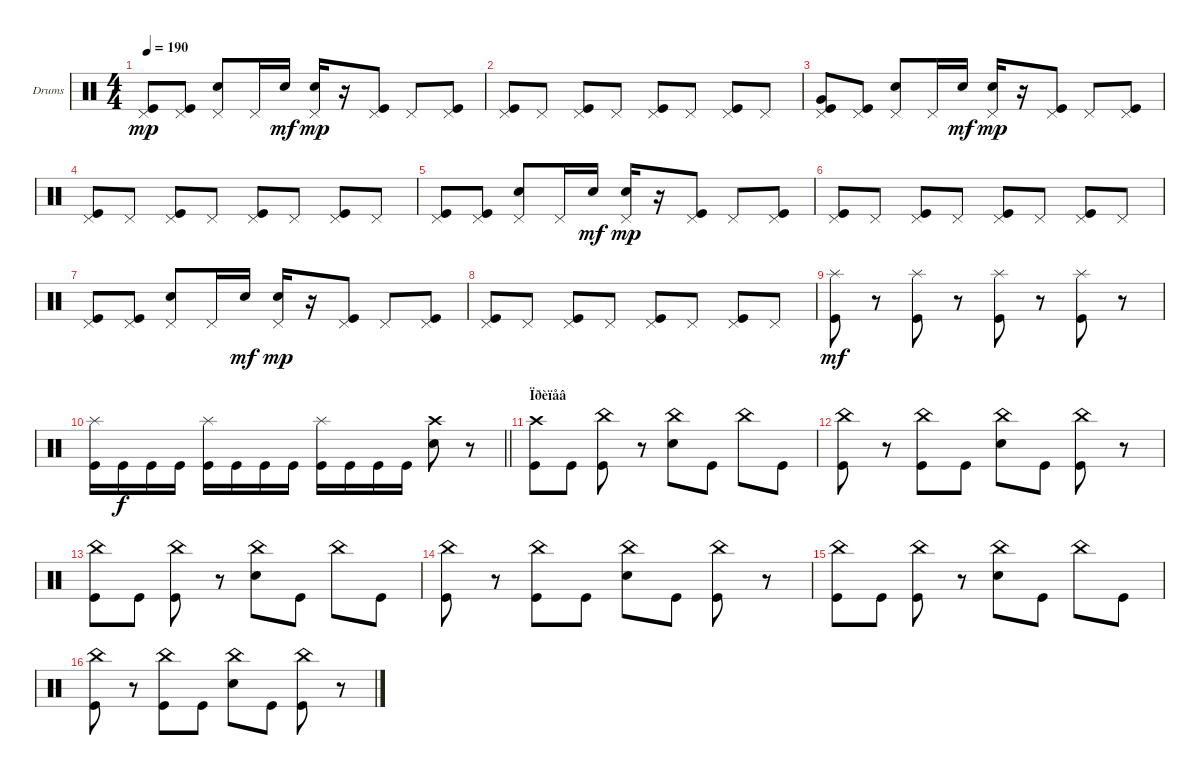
\bracketExtendMode groupsimilarinstruments
\firstSystemTrackNameOrientation horizontal
\otherSystemsTrackNameOrientation horizontal
\track ("Drumkit" "Drums") {instrument percussion}
\staff {score}
\articulation defaults
\ts (4 4)
\tempo 190
\clef neutral
\ks c
("Pedal Hi-Hat (hit)" "Kick (hit)").8{dy mp} ("Pedal Hi-Hat (hit)" "Kick (hit)").8 ("Pedal Hi-Hat (hit)" "Snare (hit) 2").8 "Pedal Hi-Hat (hit)".16 "Snare (hit) 2".16{dy mf} ("Pedal Hi-Hat (hit)" "Snare (hit) 2").16{dy mp} r.16 ("Pedal Hi-Hat (hit)" "Kick (hit)").8 "Pedal Hi-Hat (hit)".8 ("Pedal Hi-Hat (hit)" "Kick (hit)").8 |
("Pedal Hi-Hat (hit)" "Kick (hit)").8 "Pedal Hi-Hat (hit)".8 ("Pedal Hi-Hat (hit)" "Kick (hit)").8 "Pedal Hi-Hat (hit)".8 ("Pedal Hi-Hat (hit)" "Kick (hit)").8 "Pedal Hi-Hat (hit)".8 ("Pedal Hi-Hat (hit)" "Kick (hit)").8 "Pedal Hi-Hat (hit)".8 |
("Very Low Tom (hit)" "Pedal Hi-Hat (hit)" "Kick (hit)").8 ("Pedal Hi-Hat (hit)" "Kick (hit)").8 ("Pedal Hi-Hat (hit)" "Snare (hit) 2").8 "Pedal Hi-Hat (hit)".16 "Snare (hit) 2".16{dy mf} ("Pedal Hi-Hat (hit)" "Snare (hit) 2").16{dy mp} r.16 ("Pedal Hi-Hat (hit)" "Kick (hit)").8 "Pedal Hi-Hat (hit)".8 ("Pedal Hi-Hat (hit)" "Kick (hit)").8 |
("Pedal Hi-Hat (hit)" "Kick (hit)").8 "Pedal Hi-Hat (hit)".8 ("Pedal Hi-Hat (hit)" "Kick (hit)").8 "Pedal Hi-Hat (hit)".8 ("Pedal Hi-Hat (hit)" "Kick (hit)").8 "Pedal Hi-Hat (hit)".8 ("Pedal Hi-Hat (hit)" "Kick (hit)").8 "Pedal Hi-Hat (hit)".8 |
("Pedal Hi-Hat (hit)" "Kick (hit)").8 ("Pedal Hi-Hat (hit)" "Kick (hit)").8 ("Pedal Hi-Hat (hit)" "Snare (hit) 2").8 "Pedal Hi-Hat (hit)".16 "Snare (hit) 2".16{dy mf} ("Pedal Hi-Hat (hit)" "Snare (hit) 2").16{dy mp} r.16 ("Pedal Hi-Hat (hit)" "Kick (hit)").8 "Pedal Hi-Hat (hit)".8 ("Pedal Hi-Hat (hit)" "Kick (hit)").8 |
("Pedal Hi-Hat (hit)" "Kick (hit)").8 "Pedal Hi-Hat (hit)".8 ("Pedal Hi-Hat (hit)" "Kick (hit)").8 "Pedal Hi-Hat (hit)".8 ("Pedal Hi-Hat (hit)" "Kick (hit)").8 "Pedal Hi-Hat (hit)".8 ("Pedal Hi-Hat (hit)" "Kick (hit)").8 "Pedal Hi-Hat (hit)".8 |
("Pedal Hi-Hat (hit)" "Kick (hit)").8 ("Pedal Hi-Hat (hit)" "Kick (hit)").8 ("Pedal Hi-Hat (hit)" "Snare (hit) 2").8 "Pedal Hi-Hat (hit)".16 "Snare (hit) 2".16{dy mf} ("Pedal Hi-Hat (hit)" "Snare (hit) 2").16{dy mp} r.16 ("Pedal Hi-Hat (hit)" "Kick (hit)").8 "Pedal Hi-Hat (hit)".8 ("Pedal Hi-Hat (hit)" "Kick (hit)").8 |
("Pedal Hi-Hat (hit)" "Kick (hit)").8 "Pedal Hi-Hat (hit)".8 ("Pedal Hi-Hat (hit)" "Kick (hit)").8 "Pedal Hi-Hat (hit)".8 ("Pedal Hi-Hat (hit)" "Kick (hit)").8 "Pedal Hi-Hat (hit)".8 ("Pedal Hi-Hat (hit)" "Kick (hit)").8 "Pedal Hi-Hat (hit)".8 |
("Splash (hit)" "Kick (hit)").8{dy mf} r.8 ("Splash (hit)" "Kick (hit)").8 r.8 ("Splash (hit)" "Kick (hit)").8 r.8 ("Splash (hit)" "Kick (hit)").8 r.8 |
\barLineRight lightlight
("Splash (hit)" "Kick (hit)").16 "Kick (hit)".16{dy f} "Kick (hit)".16 "Kick (hit)".16 ("Splash (hit)" "Kick (hit)").16 "Kick (hit)".16 "Kick (hit)".16 "Kick (hit)".16 ("Splash (hit)" "Kick (hit)").16 "Kick (hit)".16 "Kick (hit)".16 "Kick (hit)".16 ("Crash high (hit)" "Snare (hit) 2").8 r.8 |
\section ("" "Ïðèïåâ")
("Crash high (hit)" "Kick (hit)").8 "Kick (hit)".8 ("China (hit)" "Kick (hit)").8 r.8 ("China (hit)" "Snare (hit) 2").8 "Kick (hit)".8 "China (hit)".8 "Kick (hit)".8 |
("China (hit)" "Kick (hit)").8 r.8 ("China (hit)" "Kick (hit)").8 "Kick (hit)".8 ("China (hit)" "Snare (hit) 2").8 "Kick (hit)".8 ("China (hit)" "Kick (hit)").8 r.8 |
("China (hit)" "Kick (hit)").8 "Kick (hit)".8 ("China (hit)" "Kick (hit)").8 r.8 ("China (hit)" "Snare (hit) 2").8 "Kick (hit)".8 "China (hit)".8 "Kick (hit)".8 |
("China (hit)" "Kick (hit)").8 r.8 ("China (hit)" "Kick (hit)").8 "Kick (hit)".8 ("China (hit)" "Snare (hit) 2").8 "Kick (hit)".8 ("China (hit)" "Kick (hit)").8 r.8 |
("China (hit)" "Kick (hit)").8 "Kick (hit)".8 ("China (hit)" "Kick (hit)").8 r.8 ("China (hit)" "Snare (hit) 2").8 "Kick (hit)".8 "China (hit)".8 "Kick (hit)".8 |
("China (hit)" "Kick (hit)").8 r.8 ("China (hit)" "Kick (hit)").8 "Kick (hit)".8 ("China (hit)" "Snare (hit) 2").8 "Kick (hit)".8 ("China (hit)" "Kick (hit)").8 r.8
